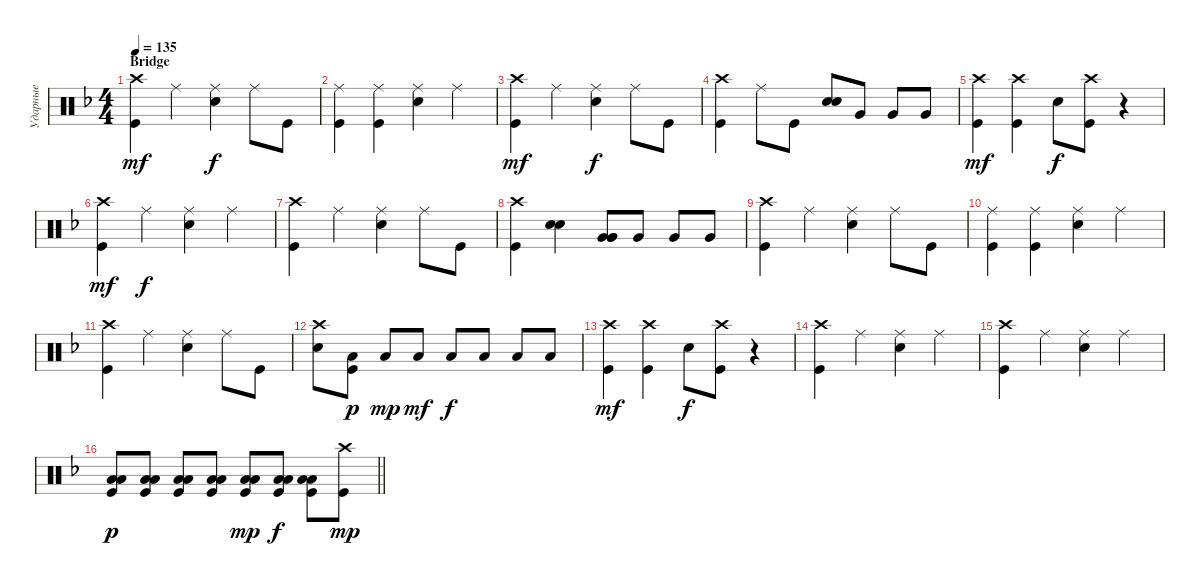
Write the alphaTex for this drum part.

\track ("Ударные" "Ударные") {instrument percussion}
\staff {score}
\articulation defaults
\ts (4 4)
\section ("" "Bridge")
\tempo 135
\clef neutral
\ks dminor
("Crash high (hit)" "Kick (hit)").4{dy mf} "Ride (middle)".4 ("Snare (hit) 2" "Ride (middle)").4{dy f} "Ride (middle)".8 "Kick (hit)".8 |
("Kick (hit)" "Ride (middle)").4 ("Kick (hit)" "Ride (middle)").4 ("Ride (middle)" "Snare (hit) 2").4 "Ride (middle)".4 |
("Crash high (hit)" "Kick (hit)").4{dy mf} "Ride (middle)".4 ("Snare (hit) 2" "Ride (middle)").4{dy f} "Ride (middle)".8 "Kick (hit)".8 |
("Kick (hit)" "Crash high (hit)").4 "Ride (middle)".8 "Kick (hit)".8 ("Snare (hit) 2" "Snare (hit) 2").8{bd 240} "Very Low Tom (hit)".8 "Very Low Tom (hit)".8 "Very Low Tom (hit)".8 |
("Crash high (hit)" "Kick (hit)").4{dy mf} ("Kick (hit)" "Crash high (hit)").4 "Snare (hit) 2".8{dy f} ("Kick (hit)" "Crash high (hit)").8 r.4 |
("Kick (hit)" "Crash high (hit)").4{dy mf} "Ride (middle)".4{dy f} ("Ride (middle)" "Snare (hit) 2").4 "Ride (middle)".4 |
("Crash high (hit)" "Kick (hit)").4 "Ride (middle)".4 ("Snare (hit) 2" "Ride (middle)").4 "Ride (middle)".8 "Kick (hit)".8 |
("Kick (hit)" "Crash high (hit)").4 ("Snare (hit) 2" "Snare (hit) 2").4{bd 240} ("Very Low Tom (hit)" "Very Low Tom (hit)" "Very Low Tom (hit)").8{bd 240} "Very Low Tom (hit)".8 "Very Low Tom (hit)".8 "Very Low Tom (hit)".8 |
("Crash high (hit)" "Kick (hit)").4 "Ride (middle)".4 ("Snare (hit) 2" "Ride (middle)").4 "Ride (middle)".8 "Kick (hit)".8 |
("Kick (hit)" "Ride (middle)").4 ("Kick (hit)" "Ride (middle)").4 ("Ride (middle)" "Snare (hit) 2").4 "Ride (middle)".4 |
("Crash high (hit)" "Kick (hit)").4 "Ride (middle)".4 ("Snare (hit) 2" "Ride (middle)").4 "Ride (middle)".8 "Kick (hit)".8 |
("Snare (hit) 2" "Crash high (hit)").8 ("Kick (hit)" "Low Floor Tom (hit)").8{dy p} "Low Floor Tom (hit)".8{dy mp} "Low Floor Tom (hit)".8{dy mf} "Low Floor Tom (hit)".8{dy f} "Low Floor Tom (hit)".8 "Low Floor Tom (hit)".8 "Low Floor Tom (hit)".8 |
("Crash high (hit)" "Kick (hit)").4{dy mf} ("Kick (hit)" "Crash high (hit)").4 "Snare (hit) 2".8{dy f} ("Kick (hit)" "Crash high (hit)").8 r.4 |
("Kick (hit)" "Crash high (hit)").4 "Ride (middle)".4 ("Ride (middle)" "Snare (hit) 2").4 "Ride (middle)".4 |
("Crash high (hit)" "Kick (hit)").4 "Ride (middle)".4 ("Snare (hit) 2" "Ride (middle)").4 "Ride (middle)".4 |
\barLineRight lightlight
("Low Floor Tom (hit)" "Kick (hit)" "Low Floor Tom (hit)").8{bd 240 dy p} ("Kick (hit)" "Low Floor Tom (hit)" "Low Floor Tom (hit)").8{bd 240} ("Kick (hit)" "Low Floor Tom (hit)" "Low Floor Tom (hit)").8{bd 240} ("Kick (hit)" "Low Floor Tom (hit)" "Low Floor Tom (hit)").8{bd 240} ("Kick (hit)" "Low Floor Tom (hit)" "Low Floor Tom (hit)").8{bd 240 dy mp} ("Kick (hit)" "Low Floor Tom (hit)" "Low Floor Tom (hit)").8{bd 240 dy f} ("Kick (hit)" "Low Floor Tom (hit)" "Low Floor Tom (hit)").8{bd 240} ("Kick (hit)" "Crash high (hit)").8{dy mp}
